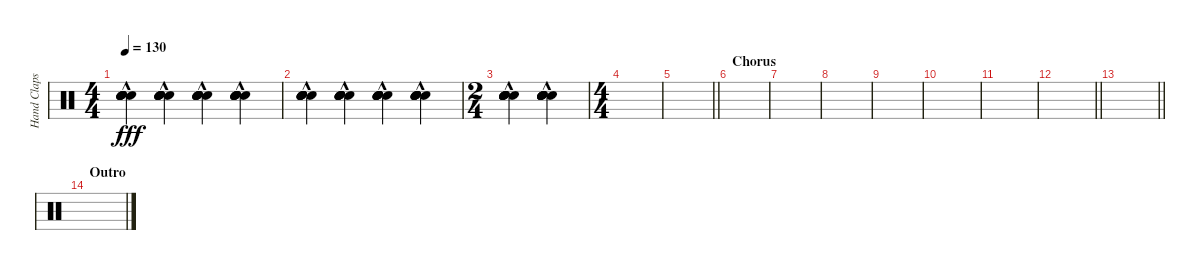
\track ("Hand Claps" "Hand Claps") {instrument percussion}
\staff {score}
\articulation defaults
\ts (4 4)
\tempo 130
\clef neutral
\ks c
("Hand Clap (hit)"{hac} "Hand Clap (hit)"{hac} "Hand Clap (hit)"{hac} "Hand Clap (hit)"{hac} "Hand Clap (hit)"{hac} "Hand Clap (hit)"{hac}).4{dy fff} ("Hand Clap (hit)"{hac} "Hand Clap (hit)"{hac} "Hand Clap (hit)"{hac} "Hand Clap (hit)"{hac} "Hand Clap (hit)"{hac} "Hand Clap (hit)"{hac}).4 ("Hand Clap (hit)"{hac} "Hand Clap (hit)"{hac} "Hand Clap (hit)"{hac} "Hand Clap (hit)"{hac} "Hand Clap (hit)"{hac} "Hand Clap (hit)"{hac}).4 ("Hand Clap (hit)"{hac} "Hand Clap (hit)"{hac} "Hand Clap (hit)"{hac} "Hand Clap (hit)"{hac} "Hand Clap (hit)"{hac} "Hand Clap (hit)"{hac}).4 |
("Hand Clap (hit)"{hac} "Hand Clap (hit)"{hac} "Hand Clap (hit)"{hac} "Hand Clap (hit)"{hac} "Hand Clap (hit)"{hac} "Hand Clap (hit)"{hac}).4 ("Hand Clap (hit)"{hac} "Hand Clap (hit)"{hac} "Hand Clap (hit)"{hac} "Hand Clap (hit)"{hac} "Hand Clap (hit)"{hac} "Hand Clap (hit)"{hac}).4 ("Hand Clap (hit)"{hac} "Hand Clap (hit)"{hac} "Hand Clap (hit)"{hac} "Hand Clap (hit)"{hac} "Hand Clap (hit)"{hac} "Hand Clap (hit)"{hac}).4 ("Hand Clap (hit)"{hac} "Hand Clap (hit)"{hac} "Hand Clap (hit)"{hac} "Hand Clap (hit)"{hac} "Hand Clap (hit)"{hac} "Hand Clap (hit)"{hac}).4 |
\ts (2 4)
("Hand Clap (hit)"{hac} "Hand Clap (hit)"{hac} "Hand Clap (hit)"{hac} "Hand Clap (hit)"{hac} "Hand Clap (hit)"{hac} "Hand Clap (hit)"{hac}).4 ("Hand Clap (hit)"{hac} "Hand Clap (hit)"{hac} "Hand Clap (hit)"{hac} "Hand Clap (hit)"{hac} "Hand Clap (hit)"{hac} "Hand Clap (hit)"{hac}).4 |
\ts (4 4)
|
\barLineRight lightlight
|
\section ("" "Chorus")
|
|
|
|
|
|
\barLineRight lightlight
|
\barLineRight lightlight
|
\section ("" "Outro")
